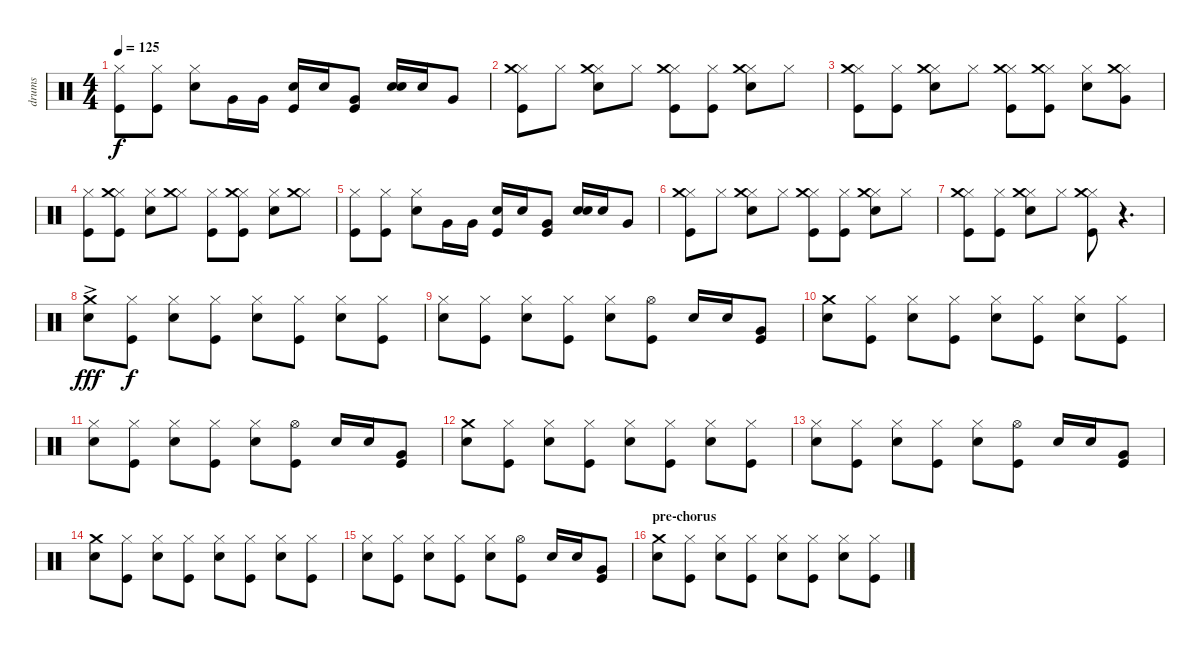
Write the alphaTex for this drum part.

\track ("drums" "drums") {instrument percussion}
\staff {score}
\articulation defaults
\ts (4 4)
\tempo 125
\clef neutral
\ks c
("Hi-Hat (closed)" "Kick (hit)").8{dy f} ("Hi-Hat (closed)" "Kick (hit)").8 ("Hi-Hat (closed)" "Electric Snare (hit)").8 "Very Low Tom (hit)".16 "Very Low Tom (hit)".16 ("Electric Snare (hit)" "Kick (hit)").16 "Electric Snare (hit)".16 ("Very Low Tom (hit)" "Kick (hit)").8 ("Electric Snare (hit)" "Electric Snare (hit)").16 "Electric Snare (hit)".16 "Very Low Tom (hit)".8 |
("Hi-Hat (closed)" "Crash medium (hit)" "Kick (hit)").8 "Hi-Hat (closed)".8 ("Hi-Hat (closed)" "Crash medium (hit)" "Electric Snare (hit)").8 "Hi-Hat (closed)".8 ("Hi-Hat (closed)" "Crash medium (hit)" "Kick (hit)").8 ("Hi-Hat (closed)" "Kick (hit)").8 ("Hi-Hat (closed)" "Crash medium (hit)" "Electric Snare (hit)").8 "Hi-Hat (closed)".8 |
("Hi-Hat (closed)" "Crash medium (hit)" "Kick (hit)").8 ("Hi-Hat (closed)" "Kick (hit)").8 ("Hi-Hat (closed)" "Crash medium (hit)" "Electric Snare (hit)").8 "Hi-Hat (closed)".8 ("Hi-Hat (closed)" "Crash medium (hit)" "Kick (hit)").8 ("Hi-Hat (closed)" "Crash medium (hit)" "Kick (hit)").8 ("Hi-Hat (closed)" "Electric Snare (hit)").8 ("Hi-Hat (closed)" "Crash medium (hit)" "Very Low Tom (hit)").8 |
("Hi-Hat (closed)" "Kick (hit)").8 ("Hi-Hat (closed)" "Crash medium (hit)" "Kick (hit)").8 ("Hi-Hat (closed)" "Electric Snare (hit)").8 ("Hi-Hat (closed)" "Crash medium (hit)").8 ("Hi-Hat (closed)" "Kick (hit)").8 ("Hi-Hat (closed)" "Crash medium (hit)" "Kick (hit)").8 ("Hi-Hat (closed)" "Electric Snare (hit)").8 ("Hi-Hat (closed)" "Crash medium (hit)").8 |
("Hi-Hat (closed)" "Kick (hit)").8 ("Hi-Hat (closed)" "Kick (hit)").8 ("Hi-Hat (closed)" "Electric Snare (hit)").8 "Very Low Tom (hit)".16 "Very Low Tom (hit)".16 ("Electric Snare (hit)" "Kick (hit)").16 "Electric Snare (hit)".16 ("Very Low Tom (hit)" "Kick (hit)").8 ("Electric Snare (hit)" "Electric Snare (hit)").16 "Electric Snare (hit)".16 "Very Low Tom (hit)".8 |
("Hi-Hat (closed)" "Crash medium (hit)" "Kick (hit)").8 "Hi-Hat (closed)".8 ("Hi-Hat (closed)" "Crash medium (hit)" "Electric Snare (hit)").8 "Hi-Hat (closed)".8 ("Hi-Hat (closed)" "Crash medium (hit)" "Kick (hit)").8 ("Hi-Hat (closed)" "Kick (hit)").8 ("Hi-Hat (closed)" "Crash medium (hit)" "Electric Snare (hit)").8 "Hi-Hat (closed)".8 |
("Hi-Hat (closed)" "Crash medium (hit)" "Kick (hit)").8 ("Hi-Hat (closed)" "Kick (hit)").8 ("Hi-Hat (closed)" "Crash medium (hit)" "Electric Snare (hit)").8 "Hi-Hat (closed)".8 ("Hi-Hat (closed)" "Crash medium (hit)" "Kick (hit)").8 r.4{d} |
\section ("" "")
("Crash medium (hit)"{ac} "Electric Snare (hit)"{ac}).8{dy fff} ("Hi-Hat (closed)" "Kick (hit)").8{dy f} ("Hi-Hat (closed)" "Electric Snare (hit)").8 ("Hi-Hat (closed)" "Kick (hit)").8 ("Hi-Hat (closed)" "Electric Snare (hit)").8 ("Hi-Hat (closed)" "Kick (hit)").8 ("Hi-Hat (closed)" "Electric Snare (hit)").8 ("Hi-Hat (closed)" "Kick (hit)").8 |
("Hi-Hat (closed)" "Electric Snare (hit)").8 ("Hi-Hat (closed)" "Kick (hit)").8 ("Hi-Hat (closed)" "Electric Snare (hit)").8 ("Hi-Hat (closed)" "Kick (hit)").8 ("Hi-Hat (closed)" "Electric Snare (hit)").8 ("Hi-Hat (open)" "Kick (hit)").8 "Electric Snare (hit)".16 "Electric Snare (hit)".16 ("Very Low Tom (hit)" "Kick (hit)").8 |
("Crash medium (hit)" "Electric Snare (hit)").8 ("Hi-Hat (closed)" "Kick (hit)").8 ("Hi-Hat (closed)" "Electric Snare (hit)").8 ("Hi-Hat (closed)" "Kick (hit)").8 ("Hi-Hat (closed)" "Electric Snare (hit)").8 ("Hi-Hat (closed)" "Kick (hit)").8 ("Hi-Hat (closed)" "Electric Snare (hit)").8 ("Hi-Hat (closed)" "Kick (hit)").8 |
("Hi-Hat (closed)" "Electric Snare (hit)").8 ("Hi-Hat (closed)" "Kick (hit)").8 ("Hi-Hat (closed)" "Electric Snare (hit)").8 ("Hi-Hat (closed)" "Kick (hit)").8 ("Hi-Hat (closed)" "Electric Snare (hit)").8 ("Hi-Hat (open)" "Kick (hit)").8 "Electric Snare (hit)".16 "Electric Snare (hit)".16 ("Very Low Tom (hit)" "Kick (hit)").8 |
("Crash medium (hit)" "Electric Snare (hit)").8 ("Hi-Hat (closed)" "Kick (hit)").8 ("Hi-Hat (closed)" "Electric Snare (hit)").8 ("Hi-Hat (closed)" "Kick (hit)").8 ("Hi-Hat (closed)" "Electric Snare (hit)").8 ("Hi-Hat (closed)" "Kick (hit)").8 ("Hi-Hat (closed)" "Electric Snare (hit)").8 ("Hi-Hat (closed)" "Kick (hit)").8 |
("Hi-Hat (closed)" "Electric Snare (hit)").8 ("Hi-Hat (closed)" "Kick (hit)").8 ("Hi-Hat (closed)" "Electric Snare (hit)").8 ("Hi-Hat (closed)" "Kick (hit)").8 ("Hi-Hat (closed)" "Electric Snare (hit)").8 ("Hi-Hat (open)" "Kick (hit)").8 "Electric Snare (hit)".16 "Electric Snare (hit)".16 ("Very Low Tom (hit)" "Kick (hit)").8 |
("Crash medium (hit)" "Electric Snare (hit)").8 ("Hi-Hat (closed)" "Kick (hit)").8 ("Hi-Hat (closed)" "Electric Snare (hit)").8 ("Hi-Hat (closed)" "Kick (hit)").8 ("Hi-Hat (closed)" "Electric Snare (hit)").8 ("Hi-Hat (closed)" "Kick (hit)").8 ("Hi-Hat (closed)" "Electric Snare (hit)").8 ("Hi-Hat (closed)" "Kick (hit)").8 |
("Hi-Hat (closed)" "Electric Snare (hit)").8 ("Hi-Hat (closed)" "Kick (hit)").8 ("Hi-Hat (closed)" "Electric Snare (hit)").8 ("Hi-Hat (closed)" "Kick (hit)").8 ("Hi-Hat (closed)" "Electric Snare (hit)").8 ("Hi-Hat (open)" "Kick (hit)").8 "Electric Snare (hit)".16 "Electric Snare (hit)".16 ("Very Low Tom (hit)" "Kick (hit)").8 |
\section ("" "pre-chorus")
("Crash medium (hit)" "Electric Snare (hit)").8 ("Hi-Hat (closed)" "Kick (hit)").8 ("Hi-Hat (closed)" "Electric Snare (hit)").8 ("Hi-Hat (closed)" "Kick (hit)").8 ("Hi-Hat (closed)" "Electric Snare (hit)").8 ("Hi-Hat (closed)" "Kick (hit)").8 ("Hi-Hat (closed)" "Electric Snare (hit)").8 ("Hi-Hat (closed)" "Kick (hit)").8
